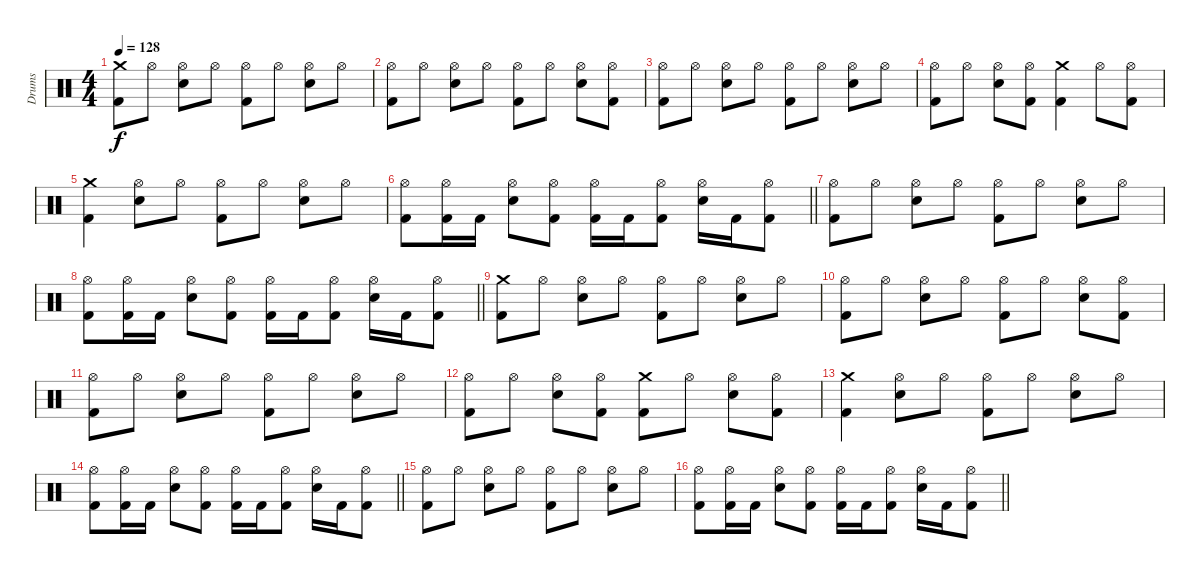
\track ("Drums" "Drums") {instrument percussion}
\staff {score}
\articulation defaults
\ts (4 4)
\tempo 128
\clef neutral
\ks c
("Crash medium (hit)" "Kick (hit) 2").8{dy f} "Hi-Hat (open)".8 ("Hi-Hat (open)" "Electric Snare (hit)").8 "Hi-Hat (open)".8 ("Hi-Hat (open)" "Kick (hit) 2").8 "Hi-Hat (open)".8 ("Hi-Hat (open)" "Electric Snare (hit)").8 "Hi-Hat (open)".8 |
("Hi-Hat (open)" "Kick (hit) 2").8 "Hi-Hat (open)".8 ("Hi-Hat (open)" "Electric Snare (hit)").8 "Hi-Hat (open)".8 ("Hi-Hat (open)" "Kick (hit) 2").8 "Hi-Hat (open)".8 ("Hi-Hat (open)" "Electric Snare (hit)").8 ("Hi-Hat (open)" "Kick (hit) 2").8 |
("Hi-Hat (open)" "Kick (hit) 2").8 "Hi-Hat (open)".8 ("Hi-Hat (open)" "Electric Snare (hit)").8 "Hi-Hat (open)".8 ("Hi-Hat (open)" "Kick (hit) 2").8 "Hi-Hat (open)".8 ("Hi-Hat (open)" "Electric Snare (hit)").8 "Hi-Hat (open)".8 |
("Hi-Hat (open)" "Kick (hit) 2").8 "Hi-Hat (open)".8 ("Hi-Hat (open)" "Electric Snare (hit)").8 ("Hi-Hat (open)" "Kick (hit) 2").8 ("Crash medium (hit)" "Kick (hit) 2").4 "Hi-Hat (open)".8 ("Hi-Hat (open)" "Kick (hit) 2").8 |
("Crash medium (hit)" "Kick (hit) 2").4 ("Hi-Hat (open)" "Electric Snare (hit)").8 "Hi-Hat (open)".8 ("Hi-Hat (open)" "Kick (hit) 2").8 "Hi-Hat (open)".8 ("Hi-Hat (open)" "Electric Snare (hit)").8 "Hi-Hat (open)".8 |
\barLineRight lightlight
("Hi-Hat (open)" "Kick (hit) 2").8 ("Hi-Hat (open)" "Kick (hit) 2").16 "Kick (hit) 2".16 ("Hi-Hat (open)" "Electric Snare (hit)").8 ("Hi-Hat (open)" "Kick (hit) 2").8 ("Hi-Hat (open)" "Kick (hit) 2").16 "Kick (hit) 2".16 ("Hi-Hat (open)" "Kick (hit) 2").8 ("Hi-Hat (open)" "Electric Snare (hit)").16 "Kick (hit) 2".16 ("Hi-Hat (open)" "Kick (hit) 2").8 |
("Hi-Hat (open)" "Kick (hit) 2").8 "Hi-Hat (open)".8 ("Hi-Hat (open)" "Electric Snare (hit)").8 "Hi-Hat (open)".8 ("Hi-Hat (open)" "Kick (hit) 2").8 "Hi-Hat (open)".8 ("Hi-Hat (open)" "Electric Snare (hit)").8 "Hi-Hat (open)".8 |
\barLineRight lightlight
("Hi-Hat (open)" "Kick (hit) 2").8 ("Hi-Hat (open)" "Kick (hit) 2").16 "Kick (hit) 2".16 ("Hi-Hat (open)" "Electric Snare (hit)").8 ("Hi-Hat (open)" "Kick (hit) 2").8 ("Hi-Hat (open)" "Kick (hit) 2").16 "Kick (hit) 2".16 ("Hi-Hat (open)" "Kick (hit) 2").8 ("Hi-Hat (open)" "Electric Snare (hit)").16 "Kick (hit) 2".16 ("Hi-Hat (open)" "Kick (hit) 2").8 |
("Crash medium (hit)" "Kick (hit) 2").8 "Hi-Hat (open)".8 ("Hi-Hat (open)" "Electric Snare (hit)").8 "Hi-Hat (open)".8 ("Hi-Hat (open)" "Kick (hit) 2").8 "Hi-Hat (open)".8 ("Hi-Hat (open)" "Electric Snare (hit)").8 "Hi-Hat (open)".8 |
("Hi-Hat (open)" "Kick (hit) 2").8 "Hi-Hat (open)".8 ("Hi-Hat (open)" "Electric Snare (hit)").8 "Hi-Hat (open)".8 ("Hi-Hat (open)" "Kick (hit) 2").8 "Hi-Hat (open)".8 ("Hi-Hat (open)" "Electric Snare (hit)").8 ("Hi-Hat (open)" "Kick (hit) 2").8 |
("Hi-Hat (open)" "Kick (hit) 2").8 "Hi-Hat (open)".8 ("Hi-Hat (open)" "Electric Snare (hit)").8 "Hi-Hat (open)".8 ("Hi-Hat (open)" "Kick (hit) 2").8 "Hi-Hat (open)".8 ("Hi-Hat (open)" "Electric Snare (hit)").8 "Hi-Hat (open)".8 |
("Hi-Hat (open)" "Kick (hit) 2").8 "Hi-Hat (open)".8 ("Hi-Hat (open)" "Electric Snare (hit)").8 ("Hi-Hat (open)" "Kick (hit) 2").8 ("Crash medium (hit)" "Kick (hit) 2").8 "Hi-Hat (open)".8 ("Hi-Hat (open)" "Electric Snare (hit)").8 ("Hi-Hat (open)" "Kick (hit) 2").8 |
("Crash medium (hit)" "Kick (hit) 2").4 ("Hi-Hat (open)" "Electric Snare (hit)").8 "Hi-Hat (open)".8 ("Hi-Hat (open)" "Kick (hit) 2").8 "Hi-Hat (open)".8 ("Hi-Hat (open)" "Electric Snare (hit)").8 "Hi-Hat (open)".8 |
\barLineRight lightlight
("Hi-Hat (open)" "Kick (hit) 2").8 ("Hi-Hat (open)" "Kick (hit) 2").16 "Kick (hit) 2".16 ("Hi-Hat (open)" "Electric Snare (hit)").8 ("Hi-Hat (open)" "Kick (hit) 2").8 ("Hi-Hat (open)" "Kick (hit) 2").16 "Kick (hit) 2".16 ("Hi-Hat (open)" "Kick (hit) 2").8 ("Hi-Hat (open)" "Electric Snare (hit)").16 "Kick (hit) 2".16 ("Hi-Hat (open)" "Kick (hit) 2").8 |
("Hi-Hat (open)" "Kick (hit) 2").8 "Hi-Hat (open)".8 ("Hi-Hat (open)" "Electric Snare (hit)").8 "Hi-Hat (open)".8 ("Hi-Hat (open)" "Kick (hit) 2").8 "Hi-Hat (open)".8 ("Hi-Hat (open)" "Electric Snare (hit)").8 "Hi-Hat (open)".8 |
\barLineRight lightlight
("Hi-Hat (open)" "Kick (hit) 2").8 ("Hi-Hat (open)" "Kick (hit) 2").16 "Kick (hit) 2".16 ("Hi-Hat (open)" "Electric Snare (hit)").8 ("Hi-Hat (open)" "Kick (hit) 2").8 ("Hi-Hat (open)" "Kick (hit) 2").16 "Kick (hit) 2".16 ("Hi-Hat (open)" "Kick (hit) 2").8 ("Hi-Hat (open)" "Electric Snare (hit)").16 "Kick (hit) 2".16 ("Hi-Hat (open)" "Kick (hit) 2").8
